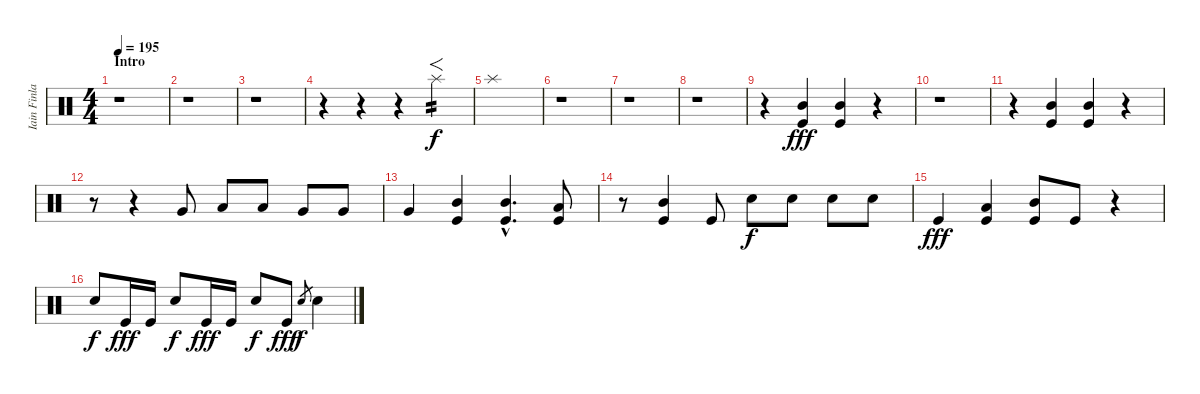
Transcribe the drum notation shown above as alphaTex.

\track ("Iain Finlay (Batería)" "Iain Finla") {instrument percussion}
\staff {score}
\articulation defaults
\ts (4 4)
\section ("" "Intro")
\tempo 195
\clef neutral
\ks c
r.1{dy f} |
r.1 |
r.1 |
r.4 r.4 r.4 "Splash (hit)".4{f tp 2} |
"Splash (hit)".1 |
r.1 |
r.1 |
r.1 |
r.4 ("Mid Tom (hit)" "Kick (hit)").4{dy fff} ("Mid Tom (hit)" "Kick (hit)").4 r.4 |
r.1 |
r.4 ("Mid Tom (hit)" "Kick (hit)").4 ("Mid Tom (hit)" "Kick (hit)").4 r.4 |
r.8 r.4 "Very Low Tom (hit)".8 "Low Tom (hit)".8 "Low Tom (hit)".8 "Very Low Tom (hit)".8 "Very Low Tom (hit)".8 |
"Very Low Tom (hit)".4 ("Mid Tom (hit)" "Kick (hit)").4 ("Mid Tom (hit)"{hac} "Kick (hit)"{hac}).4{d} ("Low Tom (hit)" "Kick (hit)").8 |
r.8 ("Mid Tom (hit)" "Kick (hit)").4 "Kick (hit)".8 "Electric Snare (hit)".8{dy f} "Electric Snare (hit)".8 "Electric Snare (hit)".8 "Electric Snare (hit)".8 |
"Kick (hit)".4{dy fff} ("Low Tom (hit)" "Kick (hit)").4 ("Mid Tom (hit)" "Kick (hit)").8 "Kick (hit)".8 r.4 |
"Electric Snare (hit)".8{dy f} "Kick (hit)".16{dy fff} "Kick (hit)".16 "Electric Snare (hit)".8{dy f} "Kick (hit)".16{dy fff} "Kick (hit)".16 "Electric Snare (hit)".8{dy f} "Kick (hit)".8{dy fff} "Electric Snare (hit)".8{gr dy f} "Electric Snare (hit)".4
